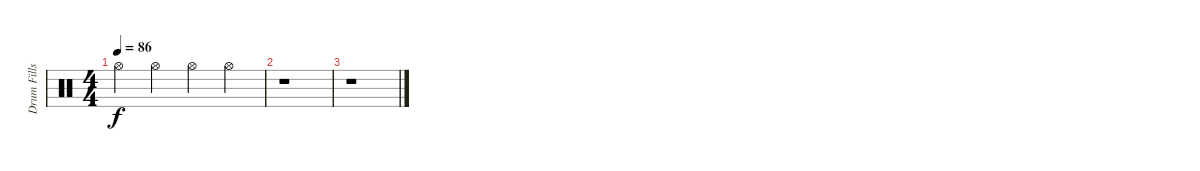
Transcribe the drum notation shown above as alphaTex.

\track ("Drum Fills" "Drum Fills") {instrument percussion}
\staff {score}
\articulation defaults
\ts (4 4)
\tempo 86
\clef neutral
\ks c "Hi-Hat (open)".4{dy f} "Hi-Hat (open)".4 "Hi-Hat (open)".4 "Hi-Hat (open)".4
|
r.1 |
r.1
